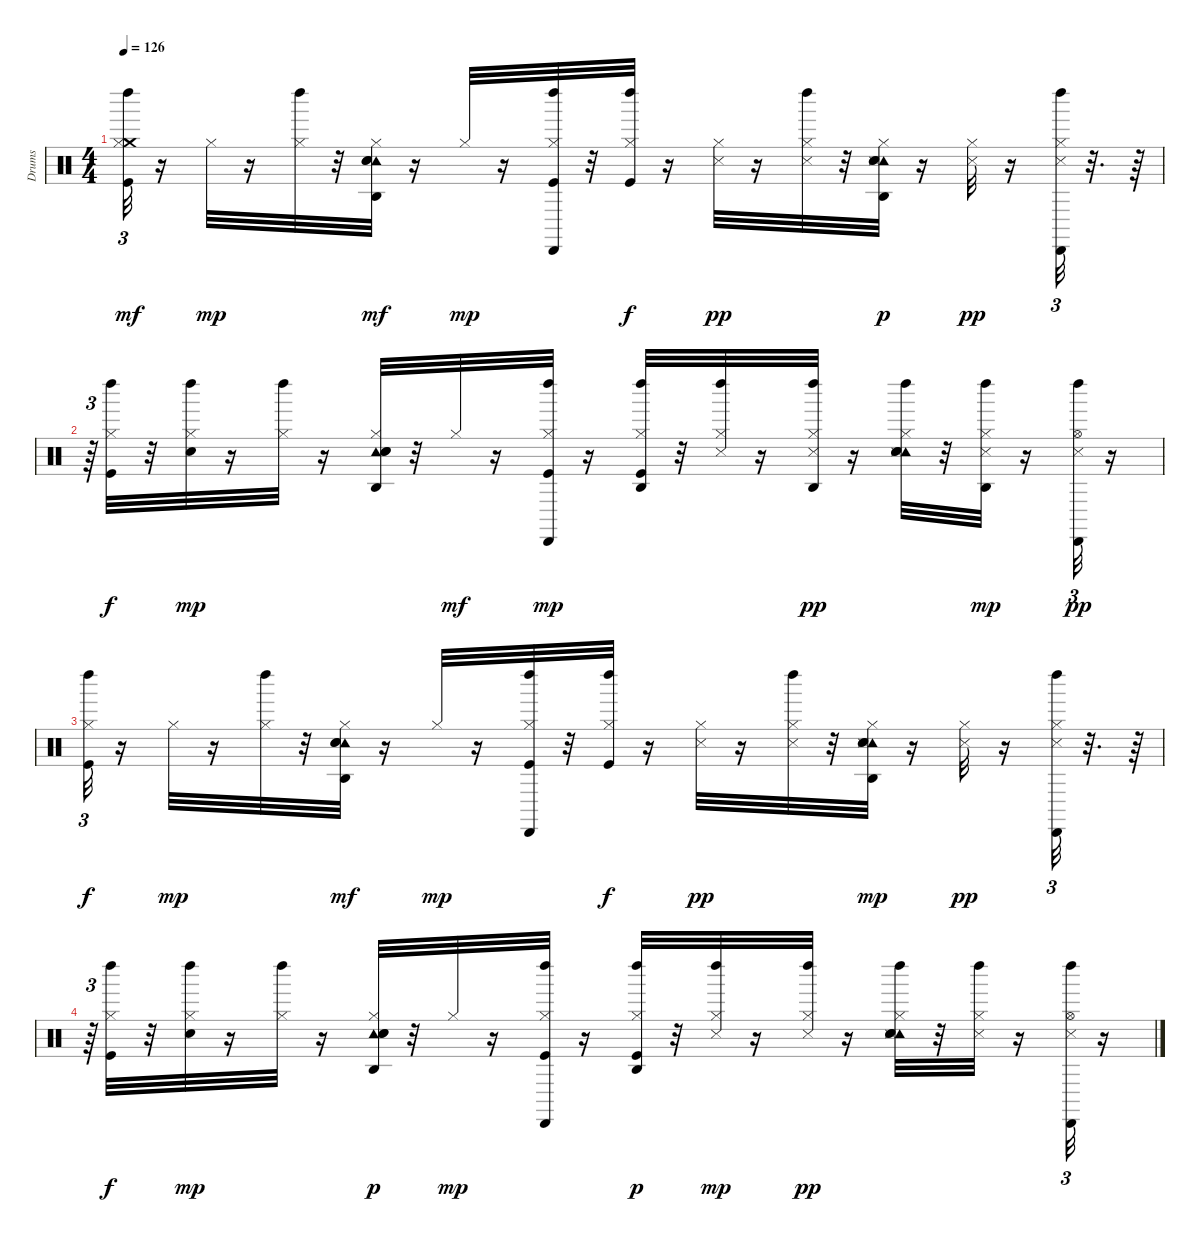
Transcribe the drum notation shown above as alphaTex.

\track ("Drums" "Drums") {instrument percussion}
\staff {score}
\articulation defaults
\ts (4 4)
\tempo 126
\clef neutral
\ks c
("Crash medium (hit)" "Kick (hit)" "Hi-Hat (closed)" "Left Maraca (hit)").32{tu (3 2) dy mf} r.16 "Hi-Hat (closed)".32{dy mp} r.16 ("Hi-Hat (closed)" "Left Maraca (hit)").32 r.32 ("Hi-Hat (closed)" "Tambourine (hit)" "Agogo high (hit)" "Snare (hit) 2" "Hand Clap (hit)").32{dy mf} r.16 "Hi-Hat (closed)".32{dy mp} r.16 ("Cabasa (hit)" "Kick (hit)" "Hi-Hat (closed)" "Left Maraca (hit)").32 r.32 ("Hi-Hat (closed)" "Kick (hit)" "Left Maraca (hit)").32{dy f} r.16 ("Hi-Hat (closed)" "Snare (side stick) 3").32{dy pp} r.16 ("Hi-Hat (closed)" "Left Maraca (hit)" "Snare (side stick) 3").32 r.32 ("Hi-Hat (closed)" "Tambourine (hit)" "Hand Clap (hit)" "Snare (hit) 2" "Snare (side stick) 3" "Agogo high (hit)").32{dy p} r.16 ("Hi-Hat (closed)" "Snare (side stick) 3").32{dy pp} r.16 ("Cabasa (hit)" "Hi-Hat (closed)" "Left Maraca (hit)" "Snare (side stick) 3").32{tu (3 2)} r.32{d} r.64 |
r.64{tu (3 2)} ("Kick (hit)" "Hi-Hat (closed)" "Left Maraca (hit)").32{dy f} r.32 ("Electric Snare (hit)" "Hi-Hat (closed)" "Left Maraca (hit)").32{dy mp} r.16 ("Left Maraca (hit)" "Hi-Hat (closed)").32 r.16 ("Tambourine (hit)" "Snare (hit) 2" "Hi-Hat (closed)" "Agogo high (hit)" "Hand Clap (hit)").32 r.32 "Hi-Hat (closed)".32{dy mf} r.16 ("Kick (hit)" "Hi-Hat (closed)" "Left Maraca (hit)" "Cabasa (hit)").32{dy mp} r.16 ("Kick (hit)" "Hi-Hat (closed)" "Left Maraca (hit)" "Agogo high (hit)").32 r.32 ("Hi-Hat (closed)" "Snare (side stick) 3" "Left Maraca (hit)").32 r.16 ("Hi-Hat (closed)" "Left Maraca (hit)" "Agogo high (hit)" "Snare (side stick) 3").32{dy pp} r.16 ("Hi-Hat (closed)" "Tambourine (hit)" "Hand Clap (hit)" "Snare (hit) 2" "Snare (side stick) 3" "Left Maraca (hit)").32 r.32 ("Hi-Hat (closed)" "Left Maraca (hit)" "Snare (side stick) 3" "Agogo high (hit)").32{dy mp} r.16 ("Hi-Hat (open)" "Left Maraca (hit)" "Cabasa (hit)" "Snare (side stick) 3").32{tu (3 2) dy pp} r.16 |
("Kick (hit)" "Hi-Hat (closed)" "Left Maraca (hit)").32{tu (3 2) dy f} r.16 "Hi-Hat (closed)".32{dy mp} r.16 ("Hi-Hat (closed)" "Left Maraca (hit)").32 r.32 ("Hi-Hat (closed)" "Tambourine (hit)" "Agogo high (hit)" "Snare (hit) 2" "Hand Clap (hit)").32{dy mf} r.16 "Hi-Hat (closed)".32{dy mp} r.16 ("Cabasa (hit)" "Kick (hit)" "Hi-Hat (closed)" "Left Maraca (hit)").32 r.32 ("Hi-Hat (closed)" "Kick (hit)" "Left Maraca (hit)").32{dy f} r.16 ("Hi-Hat (closed)" "Snare (side stick) 3").32{dy pp} r.16 ("Hi-Hat (closed)" "Left Maraca (hit)" "Snare (side stick) 3").32 r.32 ("Hi-Hat (closed)" "Tambourine (hit)" "Hand Clap (hit)" "Snare (hit) 2" "Snare (side stick) 3" "Agogo high (hit)").32{dy mp} r.16 ("Hi-Hat (closed)" "Snare (side stick) 3").32{dy pp} r.16 ("Cabasa (hit)" "Hi-Hat (closed)" "Left Maraca (hit)" "Snare (side stick) 3").32{tu (3 2)} r.32{d} r.64 |
r.64{tu (3 2)} ("Kick (hit)" "Hi-Hat (closed)" "Left Maraca (hit)").32{dy f} r.32 ("Electric Snare (hit)" "Hi-Hat (closed)" "Left Maraca (hit)").32{dy mp} r.16 ("Left Maraca (hit)" "Hi-Hat (closed)").32 r.16 ("Tambourine (hit)" "Snare (hit) 2" "Hi-Hat (closed)" "Agogo high (hit)" "Hand Clap (hit)").32{dy p} r.32 "Hi-Hat (closed)".32{dy mp} r.16 ("Kick (hit)" "Hi-Hat (closed)" "Left Maraca (hit)" "Cabasa (hit)").32 r.16 ("Kick (hit)" "Hi-Hat (closed)" "Left Maraca (hit)" "Agogo high (hit)").32{dy p} r.32 ("Hi-Hat (closed)" "Snare (side stick) 3" "Left Maraca (hit)").32{dy mp} r.16 ("Hi-Hat (closed)" "Left Maraca (hit)" "Snare (side stick) 3").32{dy pp} r.16 ("Hi-Hat (closed)" "Tambourine (hit)" "Hand Clap (hit)" "Snare (hit) 2" "Snare (side stick) 3" "Left Maraca (hit)").32 r.32 ("Hi-Hat (closed)" "Left Maraca (hit)" "Snare (side stick) 3").32 r.16 ("Hi-Hat (open)" "Left Maraca (hit)" "Cabasa (hit)" "Snare (side stick) 3").32{tu (3 2)} r.16
